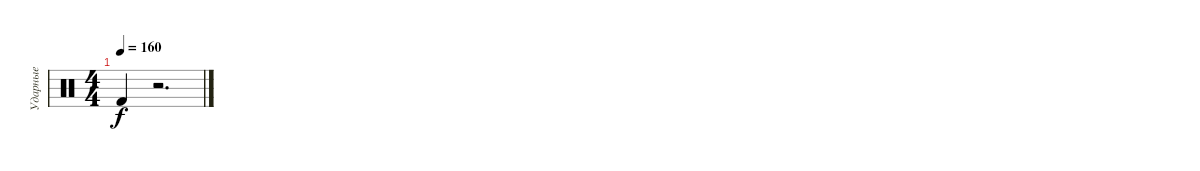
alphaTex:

\track ("Ударные" "Ударные") {instrument percussion}
\staff {score}
\articulation defaults
\ts (4 4)
\tempo 160
\clef neutral
\ks c "Kick (hit) 2".4{dy f}
r.2{d}
